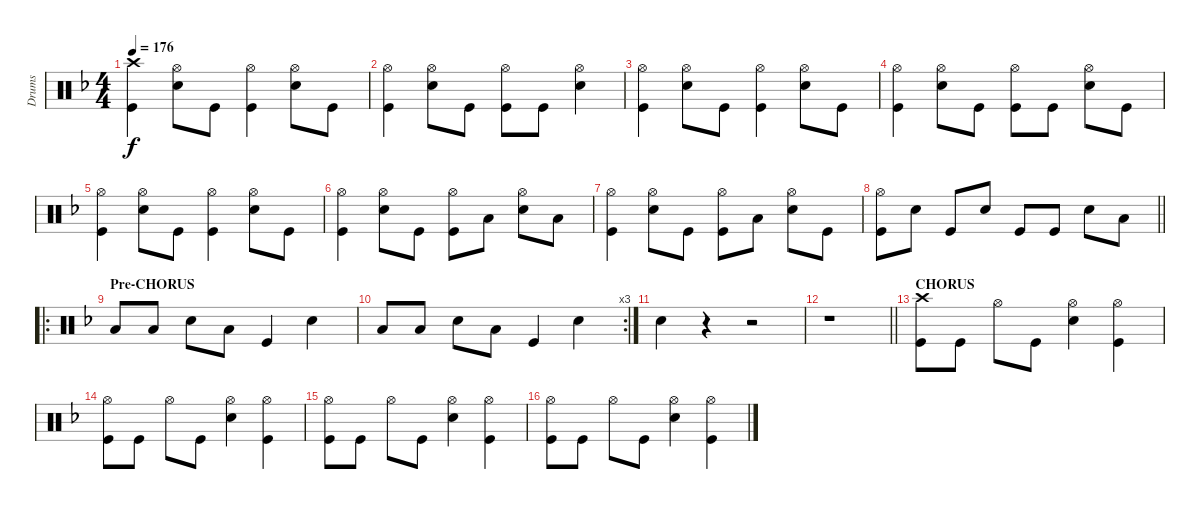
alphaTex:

\track ("Drums" "Drums") {instrument percussion}
\staff {score}
\articulation defaults
\ts (4 4)
\tempo 176
\clef neutral
\ks f
("Crash high (hit)" "Kick (hit)").4{dy f} ("Hi-Hat (open)" "Snare (hit) 2").8 "Kick (hit)".8 ("Hi-Hat (open)" "Kick (hit)").4 ("Hi-Hat (open)" "Snare (hit) 2").8 "Kick (hit)".8 |
("Hi-Hat (open)" "Kick (hit)").4 ("Hi-Hat (open)" "Snare (hit) 2").8 "Kick (hit)".8 ("Hi-Hat (open)" "Kick (hit)").8 "Kick (hit)".8 ("Hi-Hat (open)" "Snare (hit) 2").4 |
("Hi-Hat (open)" "Kick (hit)").4 ("Hi-Hat (open)" "Snare (hit) 2").8 "Kick (hit)".8 ("Hi-Hat (open)" "Kick (hit)").4 ("Hi-Hat (open)" "Snare (hit) 2").8 "Kick (hit)".8 |
("Hi-Hat (open)" "Kick (hit)").4 ("Hi-Hat (open)" "Snare (hit) 2").8 "Kick (hit)".8 ("Hi-Hat (open)" "Kick (hit)").8 "Kick (hit)".8 ("Hi-Hat (open)" "Snare (hit) 2").8 "Kick (hit)".8 |
("Hi-Hat (open)" "Kick (hit)").4 ("Hi-Hat (open)" "Snare (hit) 2").8 "Kick (hit)".8 ("Hi-Hat (open)" "Kick (hit)").4 ("Hi-Hat (open)" "Snare (hit) 2").8 "Kick (hit)".8 |
("Hi-Hat (open)" "Kick (hit)").4 ("Hi-Hat (open)" "Snare (hit) 2").8 "Kick (hit)".8 ("Hi-Hat (open)" "Kick (hit)").8 "Low Floor Tom (hit)".8 ("Hi-Hat (open)" "Snare (hit) 2").8 "Low Floor Tom (hit)".8 |
("Hi-Hat (open)" "Kick (hit)").4 ("Hi-Hat (open)" "Snare (hit) 2").8 "Kick (hit)".8 ("Hi-Hat (open)" "Kick (hit)").8 "Low Floor Tom (hit)".8 ("Hi-Hat (open)" "Snare (hit) 2").8 "Kick (hit)".8 |
\barLineRight lightlight
("Hi-Hat (open)" "Kick (hit)").8 "Snare (hit) 2".8 "Kick (hit)".8 "Snare (hit) 2".8 "Kick (hit)".8 "Kick (hit)".8 "Snare (hit) 2".8 "Low Floor Tom (hit)".8 |
\ro
\section ("" "Pre-CHORUS")
"Low Tom (hit)".8 "Low Floor Tom (hit)".8 "Snare (hit) 2".8 "Low Floor Tom (hit)".8 "Kick (hit)".4 "Snare (hit) 2".4 |
\rc 3 "Low Tom (hit)".8 "Low Floor Tom (hit)".8 "Snare (hit) 2".8 "Low Floor Tom (hit)".8 "Kick (hit)".4 "Snare (hit) 2".4
|
"Snare (hit) 2".4 r.4 r.2 |
\barLineRight lightlight
r.1 |
\section ("" "CHORUS")
("Crash high (hit)" "Kick (hit)").8 "Kick (hit)".8 "Hi-Hat (open)".8 "Kick (hit)".8 ("Hi-Hat (open)" "Snare (hit) 2").4 ("Hi-Hat (open)" "Kick (hit)").4 |
("Hi-Hat (open)" "Kick (hit)").8 "Kick (hit)".8 "Hi-Hat (open)".8 "Kick (hit)".8 ("Hi-Hat (open)" "Snare (hit) 2").4 ("Hi-Hat (open)" "Kick (hit)").4 |
("Hi-Hat (open)" "Kick (hit)").8 "Kick (hit)".8 "Hi-Hat (open)".8 "Kick (hit)".8 ("Hi-Hat (open)" "Snare (hit) 2").4 ("Hi-Hat (open)" "Kick (hit)").4 |
("Hi-Hat (open)" "Kick (hit)").8 "Kick (hit)".8 "Hi-Hat (open)".8 "Kick (hit)".8 ("Hi-Hat (open)" "Snare (hit) 2").4 ("Hi-Hat (open)" "Kick (hit)").4
